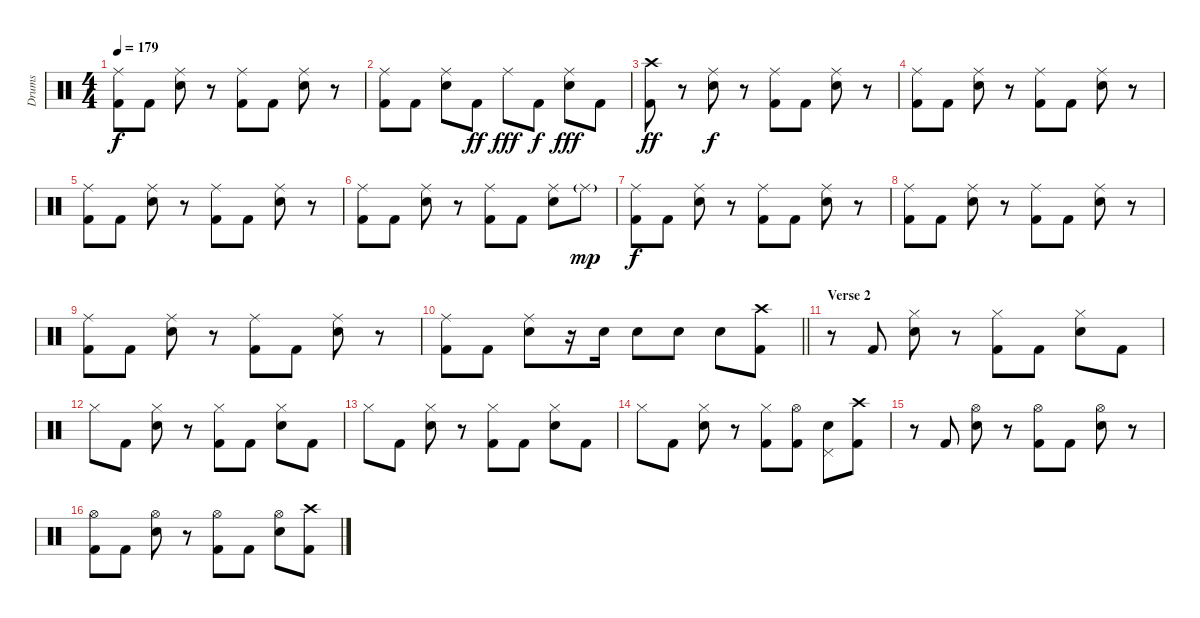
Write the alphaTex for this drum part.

\track ("Drums" "Drums") {instrument percussion}
\staff {score}
\articulation defaults
\ts (4 4)
\tempo 179
\clef neutral
\ks c
("Ride (middle)" "Kick (hit) 2").8{dy f} "Kick (hit) 2".8 ("Ride (middle)" "Snare (hit) 2").8 r.8 ("Ride (middle)" "Kick (hit) 2").8 "Kick (hit) 2".8 ("Ride (middle)" "Snare (hit) 2").8 r.8 |
("Ride (middle)" "Kick (hit) 2").8 "Kick (hit) 2".8 ("Ride (middle)" "Snare (hit) 2").8 "Kick (hit) 2".8{dy ff} "Ride (middle)".8{dy fff} "Kick (hit) 2".8{dy f} ("Ride (middle)" "Snare (hit) 2").8{dy fff} "Kick (hit) 2".8 |
("Crash high (hit)" "Kick (hit) 2").8{dy ff} r.8 ("Ride (middle)" "Snare (hit) 2").8{dy f} r.8 ("Ride (middle)" "Kick (hit) 2").8 "Kick (hit) 2".8 ("Ride (middle)" "Snare (hit) 2").8 r.8 |
("Ride (middle)" "Kick (hit) 2").8 "Kick (hit) 2".8 ("Ride (middle)" "Snare (hit) 2").8 r.8 ("Ride (middle)" "Kick (hit) 2").8 "Kick (hit) 2".8 ("Ride (middle)" "Snare (hit) 2").8 r.8 |
("Ride (middle)" "Kick (hit) 2").8 "Kick (hit) 2".8 ("Ride (middle)" "Snare (hit) 2").8 r.8 ("Ride (middle)" "Kick (hit) 2").8 "Kick (hit) 2".8 ("Ride (middle)" "Snare (hit) 2").8 r.8 |
("Ride (middle)" "Kick (hit) 2").8 "Kick (hit) 2".8 ("Ride (middle)" "Snare (hit) 2").8 r.8 ("Ride (middle)" "Kick (hit) 2").8 "Kick (hit) 2".8 ("Ride (middle)" "Snare (hit) 2").8 "Ride (middle)"{g}.8{dy mp} |
("Ride (middle)" "Kick (hit) 2").8{dy f} "Kick (hit) 2".8 ("Ride (middle)" "Snare (hit) 2").8 r.8 ("Ride (middle)" "Kick (hit) 2").8 "Kick (hit) 2".8 ("Ride (middle)" "Snare (hit) 2").8 r.8 |
("Ride (middle)" "Kick (hit) 2").8 "Kick (hit) 2".8 ("Ride (middle)" "Snare (hit) 2").8 r.8 ("Ride (middle)" "Kick (hit) 2").8 "Kick (hit) 2".8 ("Ride (middle)" "Snare (hit) 2").8 r.8 |
("Ride (middle)" "Kick (hit) 2").8 "Kick (hit) 2".8 ("Ride (middle)" "Snare (hit) 2").8 r.8 ("Ride (middle)" "Kick (hit) 2").8 "Kick (hit) 2".8 ("Ride (middle)" "Snare (hit) 2").8 r.8 |
\barLineRight lightlight
("Ride (middle)" "Kick (hit) 2").8 "Kick (hit) 2".8 ("Ride (middle)" "Snare (hit) 2").8 r.16 "Snare (hit) 2".16 "Snare (hit) 2".8 "Snare (hit) 2".8 "Snare (hit) 2".8 ("Crash high (hit)" "Kick (hit) 2").8 |
\section ("" "Verse 2")
r.8 "Kick (hit) 2".8 ("Hi-Hat (closed)" "Snare (hit) 2").8 r.8 ("Hi-Hat (closed)" "Kick (hit) 2").8 "Kick (hit) 2".8 ("Hi-Hat (closed)" "Snare (hit) 2").8 "Kick (hit) 2".8 |
"Hi-Hat (closed)".8 "Kick (hit) 2".8 ("Hi-Hat (closed)" "Snare (hit) 2").8 r.8 ("Hi-Hat (closed)" "Kick (hit) 2").8 "Kick (hit) 2".8 ("Hi-Hat (closed)" "Snare (hit) 2").8 "Kick (hit) 2".8 |
"Hi-Hat (closed)".8 "Kick (hit) 2".8 ("Hi-Hat (closed)" "Snare (hit) 2").8 r.8 ("Hi-Hat (closed)" "Kick (hit) 2").8 "Kick (hit) 2".8 ("Hi-Hat (closed)" "Snare (hit) 2").8 "Kick (hit) 2".8 |
"Hi-Hat (closed)".8 "Kick (hit) 2".8 ("Hi-Hat (closed)" "Snare (hit) 2").8 r.8 ("Hi-Hat (closed)" "Kick (hit) 2").8 ("Hi-Hat (open)" "Kick (hit) 2").8 ("Pedal Hi-Hat (hit)" "Snare (hit) 2").8 ("Crash high (hit)" "Kick (hit) 2").8 |
r.8 "Kick (hit) 2".8 ("Hi-Hat (open)" "Snare (hit) 2").8 r.8 ("Hi-Hat (open)" "Kick (hit) 2").8 "Kick (hit) 2".8 ("Hi-Hat (open)" "Snare (hit) 2").8 r.8 |
("Hi-Hat (open)" "Kick (hit) 2").8 "Kick (hit) 2".8 ("Hi-Hat (open)" "Snare (hit) 2").8 r.8 ("Hi-Hat (open)" "Kick (hit) 2").8 "Kick (hit) 2".8 ("Hi-Hat (open)" "Snare (hit) 2").8 ("Crash high (hit)" "Kick (hit) 2").8
